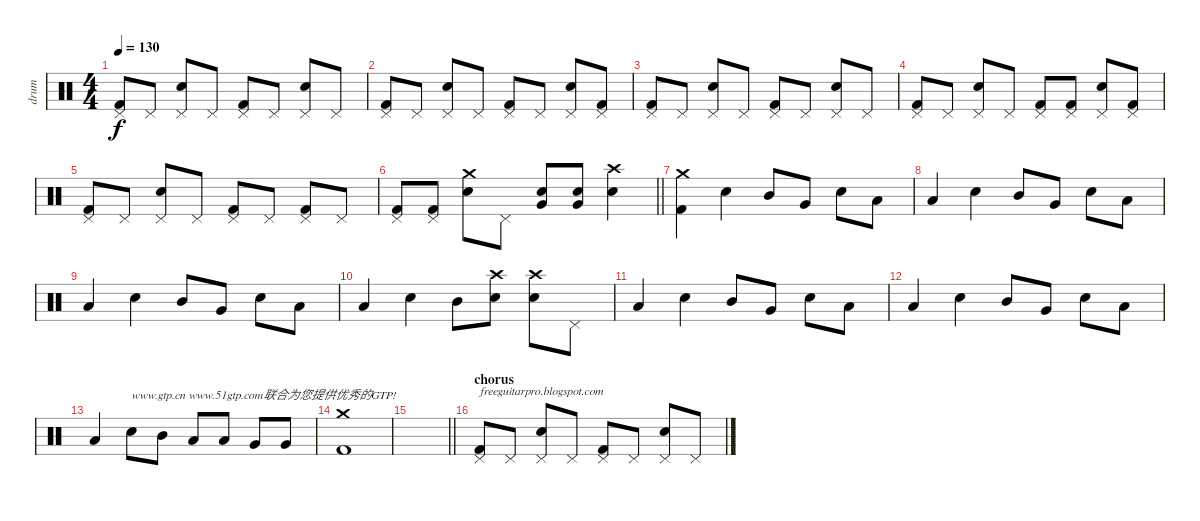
\track ("drum" "drum") {instrument percussion}
\staff {score}
\articulation defaults
\ts (4 4)
\tempo 130
\clef neutral
\ks c
("Pedal Hi-Hat (hit)" "Kick (hit) 2").8{dy f} "Pedal Hi-Hat (hit)".8 ("Pedal Hi-Hat (hit)" "Electric Snare (hit)").8 "Pedal Hi-Hat (hit)".8 ("Pedal Hi-Hat (hit)" "Kick (hit) 2").8 "Pedal Hi-Hat (hit)".8 ("Pedal Hi-Hat (hit)" "Electric Snare (hit)").8 "Pedal Hi-Hat (hit)".8 |
("Pedal Hi-Hat (hit)" "Kick (hit) 2").8 "Pedal Hi-Hat (hit)".8 ("Pedal Hi-Hat (hit)" "Electric Snare (hit)").8 "Pedal Hi-Hat (hit)".8 ("Pedal Hi-Hat (hit)" "Kick (hit) 2").8 "Pedal Hi-Hat (hit)".8 ("Pedal Hi-Hat (hit)" "Electric Snare (hit)").8 ("Pedal Hi-Hat (hit)" "Kick (hit) 2").8 |
("Pedal Hi-Hat (hit)" "Kick (hit) 2").8 "Pedal Hi-Hat (hit)".8 ("Pedal Hi-Hat (hit)" "Electric Snare (hit)").8 "Pedal Hi-Hat (hit)".8 ("Pedal Hi-Hat (hit)" "Kick (hit) 2").8 "Pedal Hi-Hat (hit)".8 ("Pedal Hi-Hat (hit)" "Electric Snare (hit)").8 "Pedal Hi-Hat (hit)".8 |
("Pedal Hi-Hat (hit)" "Kick (hit) 2").8 "Pedal Hi-Hat (hit)".8 ("Pedal Hi-Hat (hit)" "Electric Snare (hit)").8 "Pedal Hi-Hat (hit)".8 ("Pedal Hi-Hat (hit)" "Kick (hit) 2").8 ("Pedal Hi-Hat (hit)" "Kick (hit) 2").8 ("Pedal Hi-Hat (hit)" "Electric Snare (hit)").8 ("Pedal Hi-Hat (hit)" "Kick (hit) 2").8 |
("Pedal Hi-Hat (hit)" "Kick (hit) 2").8 "Pedal Hi-Hat (hit)".8 ("Pedal Hi-Hat (hit)" "Electric Snare (hit)").8 "Pedal Hi-Hat (hit)".8 ("Pedal Hi-Hat (hit)" "Kick (hit) 2").8 "Pedal Hi-Hat (hit)".8 ("Pedal Hi-Hat (hit)" "Kick (hit) 2").8 "Pedal Hi-Hat (hit)".8 |
\barLineRight lightlight
("Pedal Hi-Hat (hit)" "Kick (hit) 2").8 ("Pedal Hi-Hat (hit)" "Kick (hit) 2").8 ("Crash medium (hit)" "Electric Snare (hit)").8 "Pedal Hi-Hat (hit)".8 ("Very Low Tom (hit)" "Electric Snare (hit)").8 ("Very Low Tom (hit)" "Electric Snare (hit)").8 ("Crash high (hit)" "Electric Snare (hit)").4 |
("Crash medium (hit)" "Kick (hit) 2").4 "Electric Snare (hit)".4 "Mid Tom (hit)".8 "Very Low Tom (hit)".8 "Electric Snare (hit)".8 "Low Tom (hit)".8 |
"Low Tom (hit)".4 "Electric Snare (hit)".4 "Mid Tom (hit)".8 "Very Low Tom (hit)".8 "Electric Snare (hit)".8 "Low Tom (hit)".8 |
"Low Tom (hit)".4 "Electric Snare (hit)".4 "Mid Tom (hit)".8 "Very Low Tom (hit)".8 "Electric Snare (hit)".8 "Low Tom (hit)".8 |
"Low Tom (hit)".4 "Electric Snare (hit)".4 "Mid Tom (hit)".8 ("Crash high (hit)" "Electric Snare (hit)").8 ("Crash high (hit)" "Electric Snare (hit)").8 "Pedal Hi-Hat (hit)".8 |
"Low Tom (hit)".4 "Electric Snare (hit)".4 "Mid Tom (hit)".8 "Very Low Tom (hit)".8 "Electric Snare (hit)".8 "Low Tom (hit)".8 |
"Low Tom (hit)".4 "Electric Snare (hit)".4 "Mid Tom (hit)".8 "Very Low Tom (hit)".8 "Electric Snare (hit)".8 "Low Tom (hit)".8 |
"Low Tom (hit)".4 "Electric Snare (hit)".8{txt "www.gtp.cn www.51gtp.com联合为您提供优秀的GTP!"} "Mid Tom (hit)".8 "Low Tom (hit)".8 "Low Tom (hit)".8 "Very Low Tom (hit)".8 "Very Low Tom (hit)".8 |
("Crash medium (hit)" "Kick (hit) 2").1 |
\barLineRight lightlight
|
\section ("" "chorus")
("Pedal Hi-Hat (hit)" "Kick (hit) 2").8{txt "freeguitarpro.blogspot.com"} "Pedal Hi-Hat (hit)".8 ("Pedal Hi-Hat (hit)" "Electric Snare (hit)").8 "Pedal Hi-Hat (hit)".8 ("Pedal Hi-Hat (hit)" "Kick (hit) 2").8 "Pedal Hi-Hat (hit)".8 ("Pedal Hi-Hat (hit)" "Electric Snare (hit)").8 "Pedal Hi-Hat (hit)".8
